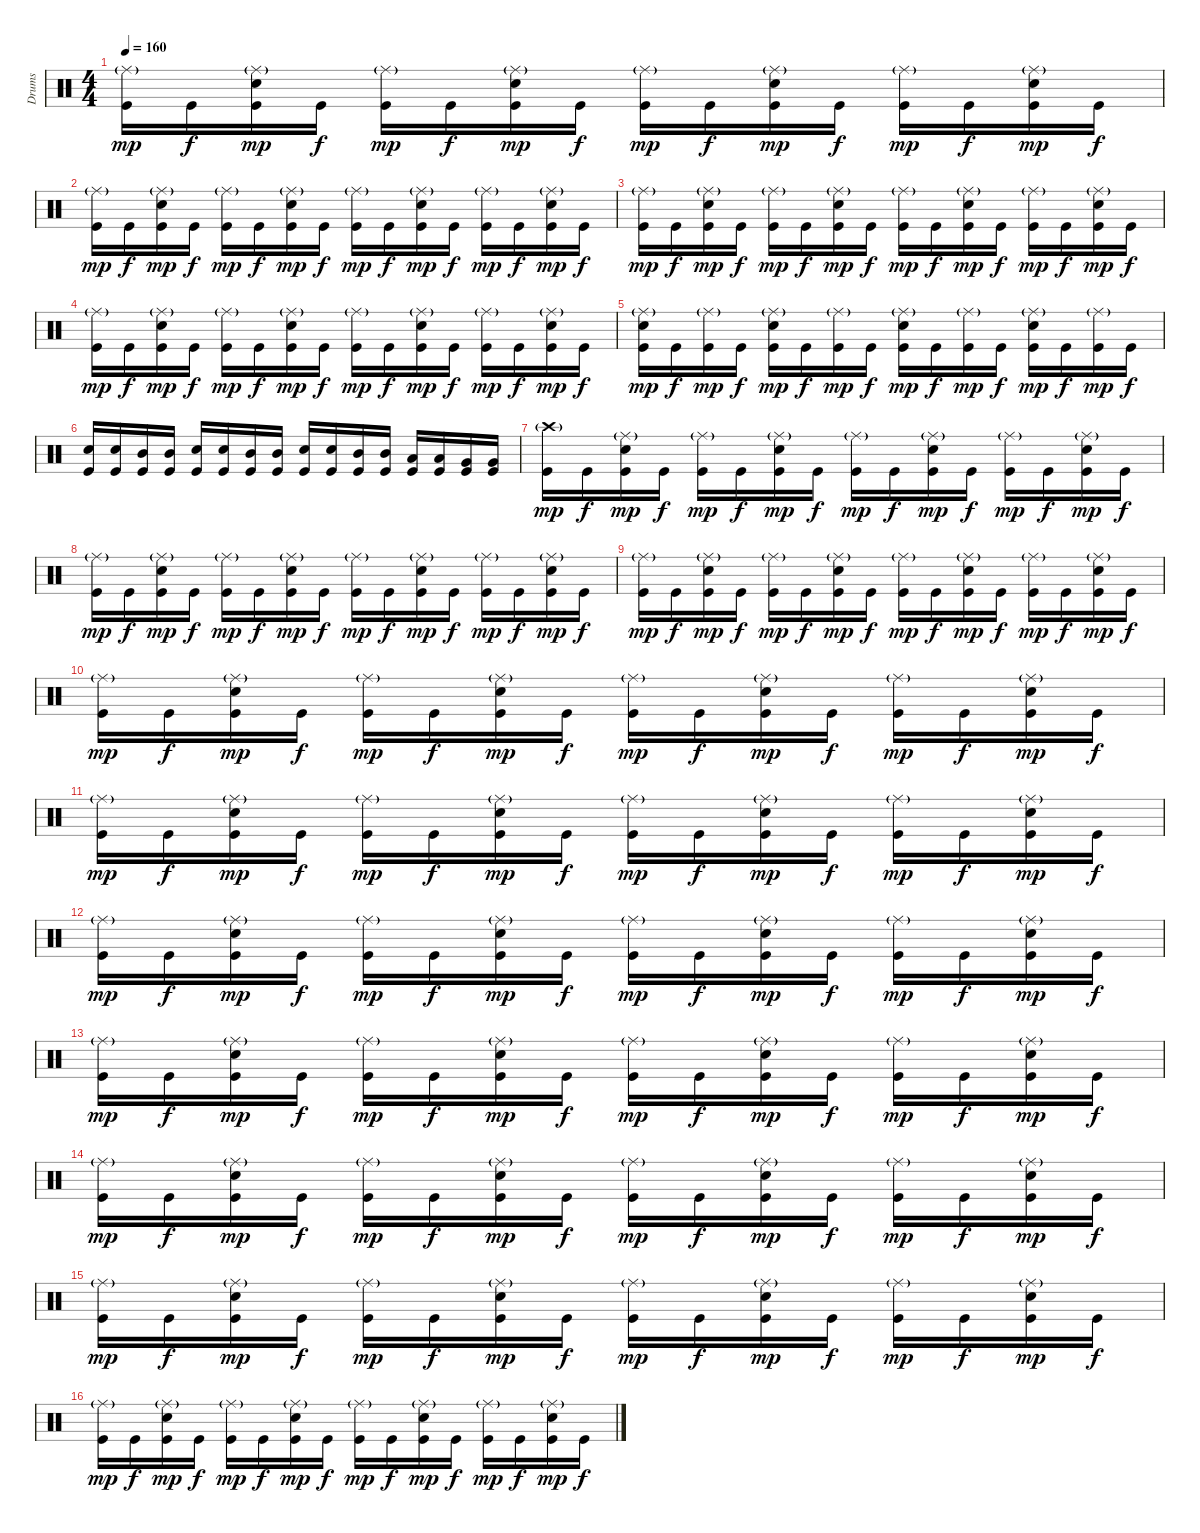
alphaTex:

\track ("Drums" "Drums") {instrument percussion}
\staff {score}
\articulation defaults
\ts (4 4)
\tempo 160
\clef neutral
\ks c
("Ride (middle)"{g} "Kick (hit)").16{dy mp} "Kick (hit)".16{dy f} ("Ride (middle)"{g} "Snare (hit) 2" "Kick (hit)").16{dy mp} "Kick (hit)".16{dy f} ("Ride (middle)"{g} "Kick (hit)").16{dy mp} "Kick (hit)".16{dy f} ("Ride (middle)"{g} "Snare (hit) 2" "Kick (hit)").16{dy mp} "Kick (hit)".16{dy f} ("Ride (middle)"{g} "Kick (hit)").16{dy mp} "Kick (hit)".16{dy f} ("Ride (middle)"{g} "Snare (hit) 2" "Kick (hit)").16{dy mp} "Kick (hit)".16{dy f} ("Ride (middle)"{g} "Kick (hit)").16{dy mp} "Kick (hit)".16{dy f} ("Ride (middle)"{g} "Snare (hit) 2" "Kick (hit)").16{dy mp} "Kick (hit)".16{dy f} |
("Ride (middle)"{g} "Kick (hit)").16{dy mp} "Kick (hit)".16{dy f} ("Ride (middle)"{g} "Snare (hit) 2" "Kick (hit)").16{dy mp} "Kick (hit)".16{dy f} ("Ride (middle)"{g} "Kick (hit)").16{dy mp} "Kick (hit)".16{dy f} ("Ride (middle)"{g} "Snare (hit) 2" "Kick (hit)").16{dy mp} "Kick (hit)".16{dy f} ("Ride (middle)"{g} "Kick (hit)").16{dy mp} "Kick (hit)".16{dy f} ("Ride (middle)"{g} "Snare (hit) 2" "Kick (hit)").16{dy mp} "Kick (hit)".16{dy f} ("Ride (middle)"{g} "Kick (hit)").16{dy mp} "Kick (hit)".16{dy f} ("Ride (middle)"{g} "Snare (hit) 2" "Kick (hit)").16{dy mp} "Kick (hit)".16{dy f} |
("Ride (middle)"{g} "Kick (hit)").16{dy mp} "Kick (hit)".16{dy f} ("Ride (middle)"{g} "Snare (hit) 2" "Kick (hit)").16{dy mp} "Kick (hit)".16{dy f} ("Ride (middle)"{g} "Kick (hit)").16{dy mp} "Kick (hit)".16{dy f} ("Ride (middle)"{g} "Snare (hit) 2" "Kick (hit)").16{dy mp} "Kick (hit)".16{dy f} ("Ride (middle)"{g} "Kick (hit)").16{dy mp} "Kick (hit)".16{dy f} ("Ride (middle)"{g} "Snare (hit) 2" "Kick (hit)").16{dy mp} "Kick (hit)".16{dy f} ("Ride (middle)"{g} "Kick (hit)").16{dy mp} "Kick (hit)".16{dy f} ("Ride (middle)"{g} "Snare (hit) 2" "Kick (hit)").16{dy mp} "Kick (hit)".16{dy f} |
("Ride (middle)"{g} "Kick (hit)").16{dy mp} "Kick (hit)".16{dy f} ("Ride (middle)"{g} "Snare (hit) 2" "Kick (hit)").16{dy mp} "Kick (hit)".16{dy f} ("Ride (middle)"{g} "Kick (hit)").16{dy mp} "Kick (hit)".16{dy f} ("Ride (middle)"{g} "Snare (hit) 2" "Kick (hit)").16{dy mp} "Kick (hit)".16{dy f} ("Ride (middle)"{g} "Kick (hit)").16{dy mp} "Kick (hit)".16{dy f} ("Ride (middle)"{g} "Snare (hit) 2" "Kick (hit)").16{dy mp} "Kick (hit)".16{dy f} ("Ride (middle)"{g} "Kick (hit)").16{dy mp} "Kick (hit)".16{dy f} ("Ride (middle)"{g} "Snare (hit) 2" "Kick (hit)").16{dy mp} "Kick (hit)".16{dy f} |
("Ride (middle)"{g} "Snare (hit) 2" "Kick (hit)").16{dy mp} "Kick (hit)".16{dy f} ("Ride (middle)"{g} "Kick (hit)").16{dy mp} "Kick (hit)".16{dy f} ("Ride (middle)"{g} "Snare (hit) 2" "Kick (hit)").16{dy mp} "Kick (hit)".16{dy f} ("Ride (middle)"{g} "Kick (hit)").16{dy mp} "Kick (hit)".16{dy f} ("Ride (middle)"{g} "Snare (hit) 2" "Kick (hit)").16{dy mp} "Kick (hit)".16{dy f} ("Ride (middle)"{g} "Kick (hit)").16{dy mp} "Kick (hit)".16{dy f} ("Ride (middle)"{g} "Snare (hit) 2" "Kick (hit)").16{dy mp} "Kick (hit)".16{dy f} ("Ride (middle)"{g} "Kick (hit)").16{dy mp} "Kick (hit)".16{dy f} |
("Snare (hit) 2" "Kick (hit)").16 ("Snare (hit) 2" "Kick (hit)").16 ("Mid Tom (hit)" "Kick (hit)").16 ("Mid Tom (hit)" "Kick (hit)").16 ("Snare (hit) 2" "Kick (hit)").16 ("Snare (hit) 2" "Kick (hit)").16 ("Mid Tom (hit)" "Kick (hit)").16 ("Mid Tom (hit)" "Kick (hit)").16 ("Snare (hit) 2" "Kick (hit)").16 ("Snare (hit) 2" "Kick (hit)").16 ("Mid Tom (hit)" "Kick (hit)").16 ("Mid Tom (hit)" "Kick (hit)").16 ("Low Tom (hit)" "Kick (hit)").16 ("Low Tom (hit)" "Kick (hit)").16 ("Very Low Tom (hit)" "Kick (hit)").16 ("Very Low Tom (hit)" "Kick (hit)").16 |
("Crash high (hit)"{g} "Kick (hit)").16{dy mp} "Kick (hit)".16{dy f} ("Ride (middle)"{g} "Snare (hit) 2" "Kick (hit)").16{dy mp} "Kick (hit)".16{dy f} ("Ride (middle)"{g} "Kick (hit)").16{dy mp} "Kick (hit)".16{dy f} ("Ride (middle)"{g} "Snare (hit) 2" "Kick (hit)").16{dy mp} "Kick (hit)".16{dy f} ("Ride (middle)"{g} "Kick (hit)").16{dy mp} "Kick (hit)".16{dy f} ("Ride (middle)"{g} "Snare (hit) 2" "Kick (hit)").16{dy mp} "Kick (hit)".16{dy f} ("Ride (middle)"{g} "Kick (hit)").16{dy mp} "Kick (hit)".16{dy f} ("Ride (middle)"{g} "Snare (hit) 2" "Kick (hit)").16{dy mp} "Kick (hit)".16{dy f} |
("Ride (middle)"{g} "Kick (hit)").16{dy mp} "Kick (hit)".16{dy f} ("Ride (middle)"{g} "Snare (hit) 2" "Kick (hit)").16{dy mp} "Kick (hit)".16{dy f} ("Ride (middle)"{g} "Kick (hit)").16{dy mp} "Kick (hit)".16{dy f} ("Ride (middle)"{g} "Snare (hit) 2" "Kick (hit)").16{dy mp} "Kick (hit)".16{dy f} ("Ride (middle)"{g} "Kick (hit)").16{dy mp} "Kick (hit)".16{dy f} ("Ride (middle)"{g} "Snare (hit) 2" "Kick (hit)").16{dy mp} "Kick (hit)".16{dy f} ("Ride (middle)"{g} "Kick (hit)").16{dy mp} "Kick (hit)".16{dy f} ("Ride (middle)"{g} "Snare (hit) 2" "Kick (hit)").16{dy mp} "Kick (hit)".16{dy f} |
("Ride (middle)"{g} "Kick (hit)").16{dy mp} "Kick (hit)".16{dy f} ("Ride (middle)"{g} "Snare (hit) 2" "Kick (hit)").16{dy mp} "Kick (hit)".16{dy f} ("Ride (middle)"{g} "Kick (hit)").16{dy mp} "Kick (hit)".16{dy f} ("Ride (middle)"{g} "Snare (hit) 2" "Kick (hit)").16{dy mp} "Kick (hit)".16{dy f} ("Ride (middle)"{g} "Kick (hit)").16{dy mp} "Kick (hit)".16{dy f} ("Ride (middle)"{g} "Snare (hit) 2" "Kick (hit)").16{dy mp} "Kick (hit)".16{dy f} ("Ride (middle)"{g} "Kick (hit)").16{dy mp} "Kick (hit)".16{dy f} ("Ride (middle)"{g} "Snare (hit) 2" "Kick (hit)").16{dy mp} "Kick (hit)".16{dy f} |
("Ride (middle)"{g} "Kick (hit)").16{dy mp} "Kick (hit)".16{dy f} ("Ride (middle)"{g} "Snare (hit) 2" "Kick (hit)").16{dy mp} "Kick (hit)".16{dy f} ("Ride (middle)"{g} "Kick (hit)").16{dy mp} "Kick (hit)".16{dy f} ("Ride (middle)"{g} "Snare (hit) 2" "Kick (hit)").16{dy mp} "Kick (hit)".16{dy f} ("Ride (middle)"{g} "Kick (hit)").16{dy mp} "Kick (hit)".16{dy f} ("Ride (middle)"{g} "Snare (hit) 2" "Kick (hit)").16{dy mp} "Kick (hit)".16{dy f} ("Ride (middle)"{g} "Kick (hit)").16{dy mp} "Kick (hit)".16{dy f} ("Ride (middle)"{g} "Snare (hit) 2" "Kick (hit)").16{dy mp} "Kick (hit)".16{dy f} |
("Ride (middle)"{g} "Kick (hit)").16{dy mp} "Kick (hit)".16{dy f} ("Ride (middle)"{g} "Snare (hit) 2" "Kick (hit)").16{dy mp} "Kick (hit)".16{dy f} ("Ride (middle)"{g} "Kick (hit)").16{dy mp} "Kick (hit)".16{dy f} ("Ride (middle)"{g} "Snare (hit) 2" "Kick (hit)").16{dy mp} "Kick (hit)".16{dy f} ("Ride (middle)"{g} "Kick (hit)").16{dy mp} "Kick (hit)".16{dy f} ("Ride (middle)"{g} "Snare (hit) 2" "Kick (hit)").16{dy mp} "Kick (hit)".16{dy f} ("Ride (middle)"{g} "Kick (hit)").16{dy mp} "Kick (hit)".16{dy f} ("Ride (middle)"{g} "Snare (hit) 2" "Kick (hit)").16{dy mp} "Kick (hit)".16{dy f} |
("Ride (middle)"{g} "Kick (hit)").16{dy mp} "Kick (hit)".16{dy f} ("Ride (middle)"{g} "Snare (hit) 2" "Kick (hit)").16{dy mp} "Kick (hit)".16{dy f} ("Ride (middle)"{g} "Kick (hit)").16{dy mp} "Kick (hit)".16{dy f} ("Ride (middle)"{g} "Snare (hit) 2" "Kick (hit)").16{dy mp} "Kick (hit)".16{dy f} ("Ride (middle)"{g} "Kick (hit)").16{dy mp} "Kick (hit)".16{dy f} ("Ride (middle)"{g} "Snare (hit) 2" "Kick (hit)").16{dy mp} "Kick (hit)".16{dy f} ("Ride (middle)"{g} "Kick (hit)").16{dy mp} "Kick (hit)".16{dy f} ("Ride (middle)"{g} "Snare (hit) 2" "Kick (hit)").16{dy mp} "Kick (hit)".16{dy f} |
("Ride (middle)"{g} "Kick (hit)").16{dy mp} "Kick (hit)".16{dy f} ("Ride (middle)"{g} "Snare (hit) 2" "Kick (hit)").16{dy mp} "Kick (hit)".16{dy f} ("Ride (middle)"{g} "Kick (hit)").16{dy mp} "Kick (hit)".16{dy f} ("Ride (middle)"{g} "Snare (hit) 2" "Kick (hit)").16{dy mp} "Kick (hit)".16{dy f} ("Ride (middle)"{g} "Kick (hit)").16{dy mp} "Kick (hit)".16{dy f} ("Ride (middle)"{g} "Snare (hit) 2" "Kick (hit)").16{dy mp} "Kick (hit)".16{dy f} ("Ride (middle)"{g} "Kick (hit)").16{dy mp} "Kick (hit)".16{dy f} ("Ride (middle)"{g} "Snare (hit) 2" "Kick (hit)").16{dy mp} "Kick (hit)".16{dy f} |
("Ride (middle)"{g} "Kick (hit)").16{dy mp} "Kick (hit)".16{dy f} ("Ride (middle)"{g} "Snare (hit) 2" "Kick (hit)").16{dy mp} "Kick (hit)".16{dy f} ("Ride (middle)"{g} "Kick (hit)").16{dy mp} "Kick (hit)".16{dy f} ("Ride (middle)"{g} "Snare (hit) 2" "Kick (hit)").16{dy mp} "Kick (hit)".16{dy f} ("Ride (middle)"{g} "Kick (hit)").16{dy mp} "Kick (hit)".16{dy f} ("Ride (middle)"{g} "Snare (hit) 2" "Kick (hit)").16{dy mp} "Kick (hit)".16{dy f} ("Ride (middle)"{g} "Kick (hit)").16{dy mp} "Kick (hit)".16{dy f} ("Ride (middle)"{g} "Snare (hit) 2" "Kick (hit)").16{dy mp} "Kick (hit)".16{dy f} |
("Ride (middle)"{g} "Kick (hit)").16{dy mp} "Kick (hit)".16{dy f} ("Ride (middle)"{g} "Snare (hit) 2" "Kick (hit)").16{dy mp} "Kick (hit)".16{dy f} ("Ride (middle)"{g} "Kick (hit)").16{dy mp} "Kick (hit)".16{dy f} ("Ride (middle)"{g} "Snare (hit) 2" "Kick (hit)").16{dy mp} "Kick (hit)".16{dy f} ("Ride (middle)"{g} "Kick (hit)").16{dy mp} "Kick (hit)".16{dy f} ("Ride (middle)"{g} "Snare (hit) 2" "Kick (hit)").16{dy mp} "Kick (hit)".16{dy f} ("Ride (middle)"{g} "Kick (hit)").16{dy mp} "Kick (hit)".16{dy f} ("Ride (middle)"{g} "Snare (hit) 2" "Kick (hit)").16{dy mp} "Kick (hit)".16{dy f} |
("Ride (middle)"{g} "Kick (hit)").16{dy mp} "Kick (hit)".16{dy f} ("Ride (middle)"{g} "Snare (hit) 2" "Kick (hit)").16{dy mp} "Kick (hit)".16{dy f} ("Ride (middle)"{g} "Kick (hit)").16{dy mp} "Kick (hit)".16{dy f} ("Ride (middle)"{g} "Snare (hit) 2" "Kick (hit)").16{dy mp} "Kick (hit)".16{dy f} ("Ride (middle)"{g} "Kick (hit)").16{dy mp} "Kick (hit)".16{dy f} ("Ride (middle)"{g} "Snare (hit) 2" "Kick (hit)").16{dy mp} "Kick (hit)".16{dy f} ("Ride (middle)"{g} "Kick (hit)").16{dy mp} "Kick (hit)".16{dy f} ("Ride (middle)"{g} "Snare (hit) 2" "Kick (hit)").16{dy mp} "Kick (hit)".16{dy f}
